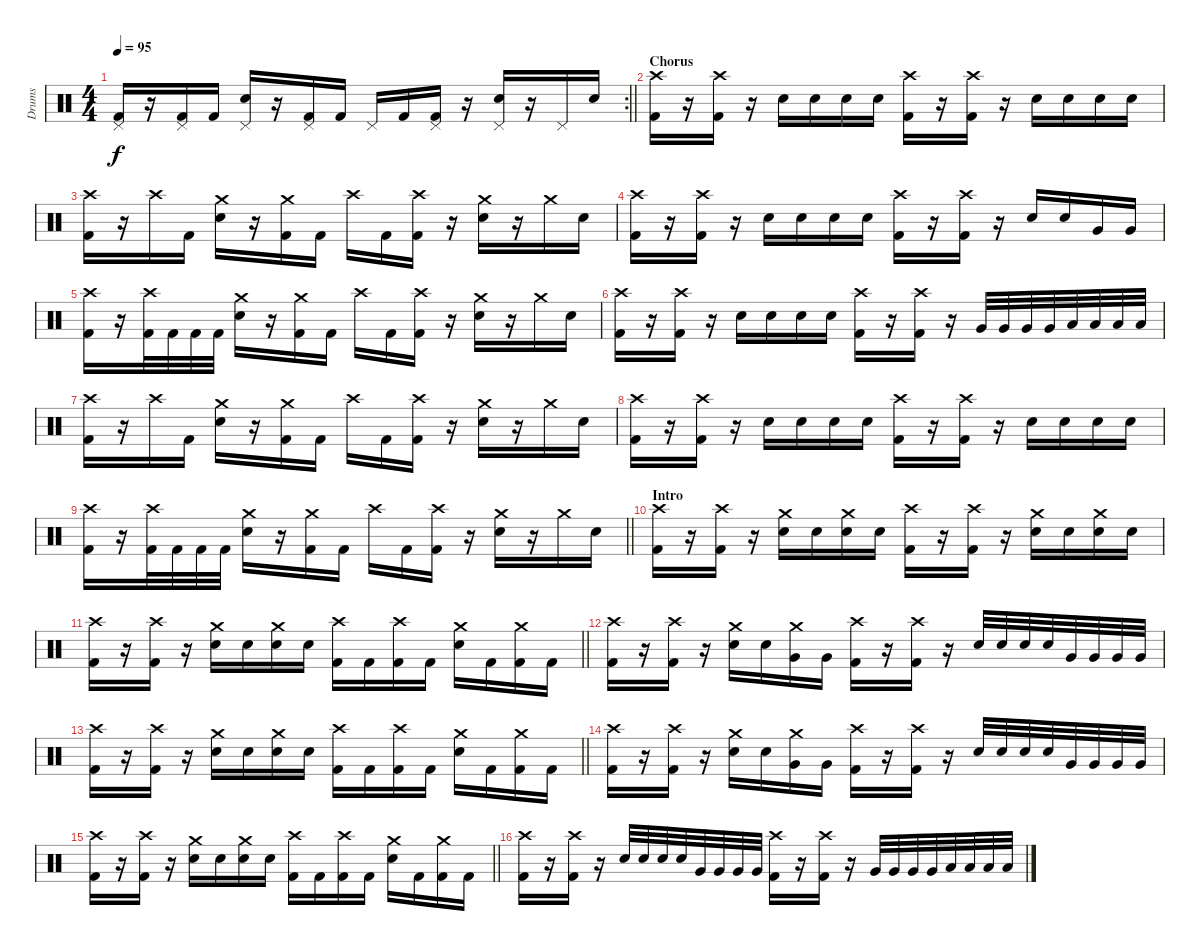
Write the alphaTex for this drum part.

\track ("Drums" "Drums") {instrument percussion}
\staff {score}
\articulation defaults
\rc 2
\ts (4 4)
\tempo 95
\clef neutral
\barLineRight lightlight
\ks c
("Pedal Hi-Hat (hit)" "Kick (hit) 2").16{dy f} r.16 ("Pedal Hi-Hat (hit)" "Kick (hit) 2").16 "Kick (hit) 2".16 ("Pedal Hi-Hat (hit)" "Electric Snare (hit)").16 r.16 ("Pedal Hi-Hat (hit)" "Kick (hit) 2").16 "Kick (hit) 2".16 "Pedal Hi-Hat (hit)".16 "Kick (hit) 2".16 ("Pedal Hi-Hat (hit)" "Kick (hit) 2").16 r.16 ("Pedal Hi-Hat (hit)" "Electric Snare (hit)").16 r.16 "Pedal Hi-Hat (hit)".16 "Electric Snare (hit)".16 |
\section ("" "Chorus")
("Crash high (hit)" "Kick (hit) 2").16 r.16 ("Crash high (hit)" "Kick (hit) 2").16 r.16 "Electric Snare (hit)".16 "Electric Snare (hit)".16 "Electric Snare (hit)".16 "Electric Snare (hit)".16 ("Crash high (hit)" "Kick (hit) 2").16 r.16 ("Crash high (hit)" "Kick (hit) 2").16 r.16 "Electric Snare (hit)".16 "Electric Snare (hit)".16 "Electric Snare (hit)".16 "Electric Snare (hit)".16 |
("Crash high (hit)" "Kick (hit) 2").16 r.16 "Crash high (hit)".16 "Kick (hit) 2".16 ("Crash medium (hit)" "Electric Snare (hit)").16 r.16 ("Crash medium (hit)" "Kick (hit) 2").16 "Kick (hit) 2".16 "Crash high (hit)".16 "Kick (hit) 2".16 ("Crash high (hit)" "Kick (hit) 2").16 r.16 ("Crash medium (hit)" "Electric Snare (hit)").16 r.16 "Crash medium (hit)".16 "Electric Snare (hit)".16 |
("Crash high (hit)" "Kick (hit) 2").16 r.16 ("Crash high (hit)" "Kick (hit) 2").16 r.16 "Electric Snare (hit)".16 "Electric Snare (hit)".16 "Electric Snare (hit)".16 "Electric Snare (hit)".16 ("Crash high (hit)" "Kick (hit) 2").16 r.16 ("Crash high (hit)" "Kick (hit) 2").16 r.16 "Electric Snare (hit)".16 "Electric Snare (hit)".16 "Very Low Tom (hit)".16 "Very Low Tom (hit)".16 |
("Crash high (hit)" "Kick (hit) 2").16 r.16 ("Crash high (hit)" "Kick (hit) 2").32 "Kick (hit) 2".32 "Kick (hit) 2".32 "Kick (hit) 2".32 ("Crash medium (hit)" "Electric Snare (hit)").16 r.16 ("Crash medium (hit)" "Kick (hit) 2").16 "Kick (hit) 2".16 "Crash high (hit)".16 "Kick (hit) 2".16 ("Crash high (hit)" "Kick (hit) 2").16 r.16 ("Crash medium (hit)" "Electric Snare (hit)").16 r.16 "Crash medium (hit)".16 "Electric Snare (hit)".16 |
("Crash high (hit)" "Kick (hit) 2").16 r.16 ("Crash high (hit)" "Kick (hit) 2").16 r.16 "Electric Snare (hit)".16 "Electric Snare (hit)".16 "Electric Snare (hit)".16 "Electric Snare (hit)".16 ("Crash high (hit)" "Kick (hit) 2").16 r.16 ("Crash high (hit)" "Kick (hit) 2").16 r.16 "Very Low Tom (hit)".32 "Very Low Tom (hit)".32 "Very Low Tom (hit)".32 "Very Low Tom (hit)".32 "Low Floor Tom (hit)".32 "Low Floor Tom (hit)".32 "Low Floor Tom (hit)".32 "Low Floor Tom (hit)".32 |
("Crash high (hit)" "Kick (hit) 2").16 r.16 "Crash high (hit)".16 "Kick (hit) 2".16 ("Crash medium (hit)" "Electric Snare (hit)").16 r.16 ("Crash medium (hit)" "Kick (hit) 2").16 "Kick (hit) 2".16 "Crash high (hit)".16 "Kick (hit) 2".16 ("Crash high (hit)" "Kick (hit) 2").16 r.16 ("Crash medium (hit)" "Electric Snare (hit)").16 r.16 "Crash medium (hit)".16 "Electric Snare (hit)".16 |
("Crash high (hit)" "Kick (hit) 2").16 r.16 ("Crash high (hit)" "Kick (hit) 2").16 r.16 "Electric Snare (hit)".16 "Electric Snare (hit)".16 "Electric Snare (hit)".16 "Electric Snare (hit)".16 ("Crash high (hit)" "Kick (hit) 2").16 r.16 ("Crash high (hit)" "Kick (hit) 2").16 r.16 "Electric Snare (hit)".16 "Electric Snare (hit)".16 "Electric Snare (hit)".16 "Electric Snare (hit)".16 |
\barLineRight lightlight
("Crash high (hit)" "Kick (hit) 2").16 r.16 ("Crash high (hit)" "Kick (hit) 2").32 "Kick (hit) 2".32 "Kick (hit) 2".32 "Kick (hit) 2".32 ("Crash medium (hit)" "Electric Snare (hit)").16 r.16 ("Crash medium (hit)" "Kick (hit) 2").16 "Kick (hit) 2".16 "Crash high (hit)".16 "Kick (hit) 2".16 ("Crash high (hit)" "Kick (hit) 2").16 r.16 ("Crash medium (hit)" "Electric Snare (hit)").16 r.16 "Crash medium (hit)".16 "Electric Snare (hit)".16 |
\section ("" "Intro")
("Crash high (hit)" "Kick (hit) 2").16 r.16 ("Crash high (hit)" "Kick (hit) 2").16 r.16 ("Crash medium (hit)" "Electric Snare (hit)").16 "Electric Snare (hit)".16 ("Crash medium (hit)" "Electric Snare (hit)").16 "Electric Snare (hit)".16 ("Crash high (hit)" "Kick (hit) 2").16 r.16 ("Crash high (hit)" "Kick (hit) 2").16 r.16 ("Crash medium (hit)" "Electric Snare (hit)").16 "Electric Snare (hit)".16 ("Crash medium (hit)" "Electric Snare (hit)").16 "Electric Snare (hit)".16 |
\barLineRight lightlight
("Crash high (hit)" "Kick (hit) 2").16 r.16 ("Crash high (hit)" "Kick (hit) 2").16 r.16 ("Crash medium (hit)" "Electric Snare (hit)").16 "Electric Snare (hit)".16 ("Crash medium (hit)" "Electric Snare (hit)").16 "Electric Snare (hit)".16 ("Crash high (hit)" "Kick (hit) 2").16 "Kick (hit) 2".16 ("Crash high (hit)" "Kick (hit) 2").16 "Kick (hit) 2".16 ("Crash medium (hit)" "Electric Snare (hit)").16 "Kick (hit) 2".16 ("Crash medium (hit)" "Kick (hit) 2").16 "Kick (hit) 2".16 |
("Crash high (hit)" "Kick (hit) 2").16 r.16 ("Crash high (hit)" "Kick (hit) 2").16 r.16 ("Crash medium (hit)" "Electric Snare (hit)").16 "Electric Snare (hit)".16 ("Crash medium (hit)" "Very Low Tom (hit)").16 "Very Low Tom (hit)".16 ("Crash high (hit)" "Kick (hit) 2").16 r.16 ("Crash high (hit)" "Kick (hit) 2").16 r.16 "Electric Snare (hit)".32 "Electric Snare (hit)".32 "Electric Snare (hit)".32 "Electric Snare (hit)".32 "Very Low Tom (hit)".32 "Very Low Tom (hit)".32 "Very Low Tom (hit)".32 "Very Low Tom (hit)".32 |
\barLineRight lightlight
("Crash high (hit)" "Kick (hit) 2").16 r.16 ("Crash high (hit)" "Kick (hit) 2").16 r.16 ("Crash medium (hit)" "Electric Snare (hit)").16 "Electric Snare (hit)".16 ("Crash medium (hit)" "Electric Snare (hit)").16 "Electric Snare (hit)".16 ("Crash high (hit)" "Kick (hit) 2").16 "Kick (hit) 2".16 ("Crash high (hit)" "Kick (hit) 2").16 "Kick (hit) 2".16 ("Crash medium (hit)" "Electric Snare (hit)").16 "Kick (hit) 2".16 ("Crash medium (hit)" "Kick (hit) 2").16 "Kick (hit) 2".16 |
("Crash high (hit)" "Kick (hit) 2").16 r.16 ("Crash high (hit)" "Kick (hit) 2").16 r.16 ("Crash medium (hit)" "Electric Snare (hit)").16 "Electric Snare (hit)".16 ("Crash medium (hit)" "Very Low Tom (hit)").16 "Very Low Tom (hit)".16 ("Crash high (hit)" "Kick (hit) 2").16 r.16 ("Crash high (hit)" "Kick (hit) 2").16 r.16 "Electric Snare (hit)".32 "Electric Snare (hit)".32 "Electric Snare (hit)".32 "Electric Snare (hit)".32 "Very Low Tom (hit)".32 "Very Low Tom (hit)".32 "Very Low Tom (hit)".32 "Very Low Tom (hit)".32 |
\barLineRight lightlight
("Crash high (hit)" "Kick (hit) 2").16 r.16 ("Crash high (hit)" "Kick (hit) 2").16 r.16 ("Crash medium (hit)" "Electric Snare (hit)").16 "Electric Snare (hit)".16 ("Crash medium (hit)" "Electric Snare (hit)").16 "Electric Snare (hit)".16 ("Crash high (hit)" "Kick (hit) 2").16 "Kick (hit) 2".16 ("Crash high (hit)" "Kick (hit) 2").16 "Kick (hit) 2".16 ("Crash medium (hit)" "Electric Snare (hit)").16 "Kick (hit) 2".16 ("Crash medium (hit)" "Kick (hit) 2").16 "Kick (hit) 2".16 |
("Crash high (hit)" "Kick (hit) 2").16 r.16 ("Crash high (hit)" "Kick (hit) 2").16 r.16 "Electric Snare (hit)".32 "Electric Snare (hit)".32 "Electric Snare (hit)".32 "Electric Snare (hit)".32 "Very Low Tom (hit)".32 "Very Low Tom (hit)".32 "Very Low Tom (hit)".32 "Very Low Tom (hit)".32 ("Crash high (hit)" "Kick (hit) 2").16 r.16 ("Crash high (hit)" "Kick (hit) 2").16 r.16 "Very Low Tom (hit)".32 "Very Low Tom (hit)".32 "Very Low Tom (hit)".32 "Very Low Tom (hit)".32 "Low Floor Tom (hit)".32 "Low Floor Tom (hit)".32 "Low Floor Tom (hit)".32 "Low Floor Tom (hit)".32
